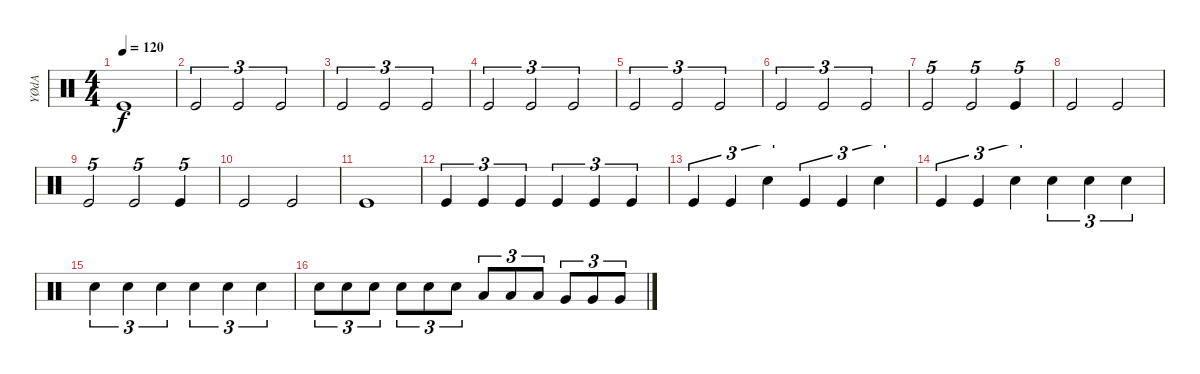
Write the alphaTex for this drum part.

\track ("YØdA" "YØdA") {instrument percussion}
\staff {score}
\articulation defaults
\ts (4 4)
\tempo 120
\clef neutral
\ks c "Kick (hit)".1{dy f}
|
"Kick (hit)".2{tu (3 2)} "Kick (hit)".2{tu (3 2)} "Kick (hit)".2{tu (3 2)} |
"Kick (hit)".2{tu (3 2)} "Kick (hit)".2{tu (3 2)} "Kick (hit)".2{tu (3 2)} |
"Kick (hit)".2{tu (3 2)} "Kick (hit)".2{tu (3 2)} "Kick (hit)".2{tu (3 2)} |
"Kick (hit)".2{tu (3 2)} "Kick (hit)".2{tu (3 2)} "Kick (hit)".2{tu (3 2)} |
"Kick (hit)".2{tu (3 2)} "Kick (hit)".2{tu (3 2)} "Kick (hit)".2{tu (3 2)} |
"Kick (hit)".2{tu (5 4)} "Kick (hit)".2{tu (5 4)} "Kick (hit)".4{tu (5 4)} |
"Kick (hit)".2 "Kick (hit)".2 |
"Kick (hit)".2{tu (5 4)} "Kick (hit)".2{tu (5 4)} "Kick (hit)".4{tu (5 4)} |
"Kick (hit)".2 "Kick (hit)".2 |
"Kick (hit)".1 |
"Kick (hit)".4{tu (3 2)} "Kick (hit)".4{tu (3 2)} "Kick (hit)".4{tu (3 2)} "Kick (hit)".4{tu (3 2)} "Kick (hit)".4{tu (3 2)} "Kick (hit)".4{tu (3 2)} |
"Kick (hit)".4{tu (3 2)} "Kick (hit)".4{tu (3 2)} "Electric Snare (hit)".4{tu (3 2)} "Kick (hit)".4{tu (3 2)} "Kick (hit)".4{tu (3 2)} "Electric Snare (hit)".4{tu (3 2)} |
"Kick (hit)".4{tu (3 2)} "Kick (hit)".4{tu (3 2)} "Electric Snare (hit)".4{tu (3 2)} "Electric Snare (hit)".4{tu (3 2)} "Electric Snare (hit)".4{tu (3 2)} "Electric Snare (hit)".4{tu (3 2)} |
"Electric Snare (hit)".4{tu (3 2)} "Electric Snare (hit)".4{tu (3 2)} "Electric Snare (hit)".4{tu (3 2)} "Electric Snare (hit)".4{tu (3 2)} "Electric Snare (hit)".4{tu (3 2)} "Electric Snare (hit)".4{tu (3 2)} |
"Electric Snare (hit)".8{tu (3 2)} "Electric Snare (hit)".8{tu (3 2)} "Electric Snare (hit)".8{tu (3 2)} "Electric Snare (hit)".8{tu (3 2)} "Electric Snare (hit)".8{tu (3 2)} "Electric Snare (hit)".8{tu (3 2)} "Low Tom (hit)".8{tu (3 2)} "Low Tom (hit)".8{tu (3 2)} "Low Tom (hit)".8{tu (3 2)} "Very Low Tom (hit)".8{tu (3 2)} "Very Low Tom (hit)".8{tu (3 2)} "Very Low Tom (hit)".8{tu (3 2)}
